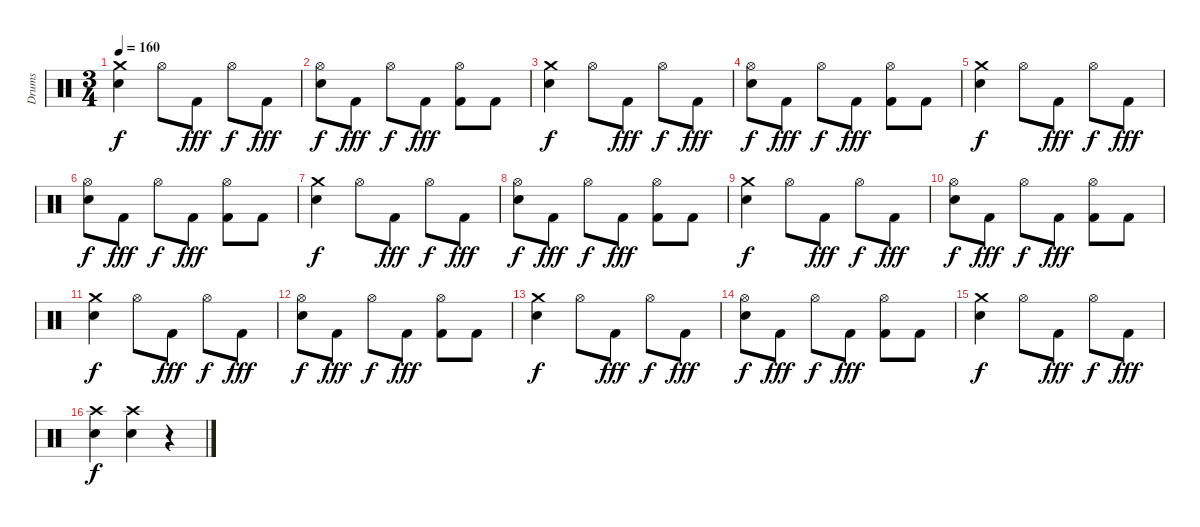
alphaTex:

\track ("Drums" "Drums") {instrument percussion}
\staff {score}
\articulation defaults
\ts (3 4)
\tempo 160
\clef neutral
\ks c
("Crash medium (hit)" "Electric Snare (hit)").4{dy f} "Hi-Hat (open)".8 "Kick (hit) 2".8{dy fff} "Hi-Hat (open)".8{dy f} "Kick (hit) 2".8{dy fff} |
("Hi-Hat (open)" "Electric Snare (hit)").8{dy f} "Kick (hit) 2".8{dy fff} "Hi-Hat (open)".8{dy f} "Kick (hit) 2".8{dy fff} ("Hi-Hat (open)" "Kick (hit) 2").8 "Kick (hit) 2".8 |
("Crash medium (hit)" "Electric Snare (hit)").4{dy f} "Hi-Hat (open)".8 "Kick (hit) 2".8{dy fff} "Hi-Hat (open)".8{dy f} "Kick (hit) 2".8{dy fff} |
("Hi-Hat (open)" "Electric Snare (hit)").8{dy f} "Kick (hit) 2".8{dy fff} "Hi-Hat (open)".8{dy f} "Kick (hit) 2".8{dy fff} ("Hi-Hat (open)" "Kick (hit) 2").8 "Kick (hit) 2".8 |
("Crash medium (hit)" "Electric Snare (hit)").4{dy f} "Hi-Hat (open)".8 "Kick (hit) 2".8{dy fff} "Hi-Hat (open)".8{dy f} "Kick (hit) 2".8{dy fff} |
("Hi-Hat (open)" "Electric Snare (hit)").8{dy f} "Kick (hit) 2".8{dy fff} "Hi-Hat (open)".8{dy f} "Kick (hit) 2".8{dy fff} ("Hi-Hat (open)" "Kick (hit) 2").8 "Kick (hit) 2".8 |
("Crash medium (hit)" "Electric Snare (hit)").4{dy f} "Hi-Hat (open)".8 "Kick (hit) 2".8{dy fff} "Hi-Hat (open)".8{dy f} "Kick (hit) 2".8{dy fff} |
("Hi-Hat (open)" "Electric Snare (hit)").8{dy f} "Kick (hit) 2".8{dy fff} "Hi-Hat (open)".8{dy f} "Kick (hit) 2".8{dy fff} ("Hi-Hat (open)" "Kick (hit) 2").8 "Kick (hit) 2".8 |
("Crash medium (hit)" "Electric Snare (hit)").4{dy f} "Hi-Hat (open)".8 "Kick (hit) 2".8{dy fff} "Hi-Hat (open)".8{dy f} "Kick (hit) 2".8{dy fff} |
("Hi-Hat (open)" "Electric Snare (hit)").8{dy f} "Kick (hit) 2".8{dy fff} "Hi-Hat (open)".8{dy f} "Kick (hit) 2".8{dy fff} ("Hi-Hat (open)" "Kick (hit) 2").8 "Kick (hit) 2".8 |
("Crash medium (hit)" "Electric Snare (hit)").4{dy f} "Hi-Hat (open)".8 "Kick (hit) 2".8{dy fff} "Hi-Hat (open)".8{dy f} "Kick (hit) 2".8{dy fff} |
("Hi-Hat (open)" "Electric Snare (hit)").8{dy f} "Kick (hit) 2".8{dy fff} "Hi-Hat (open)".8{dy f} "Kick (hit) 2".8{dy fff} ("Hi-Hat (open)" "Kick (hit) 2").8 "Kick (hit) 2".8 |
("Crash medium (hit)" "Electric Snare (hit)").4{dy f} "Hi-Hat (open)".8 "Kick (hit) 2".8{dy fff} "Hi-Hat (open)".8{dy f} "Kick (hit) 2".8{dy fff} |
("Hi-Hat (open)" "Electric Snare (hit)").8{dy f} "Kick (hit) 2".8{dy fff} "Hi-Hat (open)".8{dy f} "Kick (hit) 2".8{dy fff} ("Hi-Hat (open)" "Kick (hit) 2").8 "Kick (hit) 2".8 |
("Crash medium (hit)" "Electric Snare (hit)").4{dy f} "Hi-Hat (open)".8 "Kick (hit) 2".8{dy fff} "Hi-Hat (open)".8{dy f} "Kick (hit) 2".8{dy fff} |
("Crash high (hit)" "Electric Snare (hit)").4{dy f} ("Crash high (hit)" "Electric Snare (hit)").4 r.4
